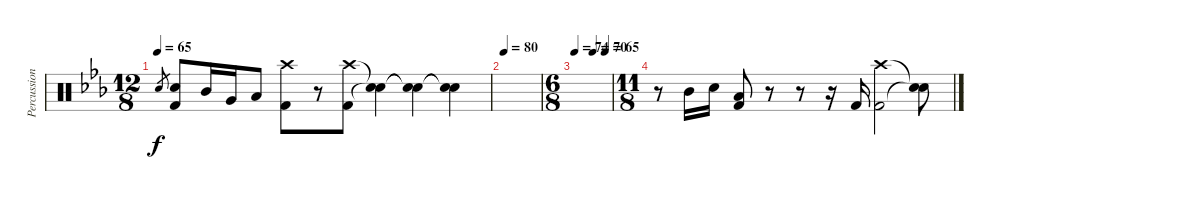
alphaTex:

\track ("Percussion" "Percussion") {instrument percussion}
\staff {score}
\articulation defaults
\ts (12 8)
\tempo 65
\clef neutral
\ks cminor "Snare (hit) 2"{h}.8{gr dy f}
("Snare (hit) 2" "Kick (hit) 2").8 "Mid Tom (hit)".16 "Very Low Tom (hit)".16 "Low Floor Tom (hit)".8 ("Crash high (hit)" "Kick (hit) 2").8 r.8 ("Crash high (hit)" "Kick (hit) 2").8 ("Snare (hit)"{t} "Snare (hit)"{t}).4 ("Snare (hit)"{t} "Snare (hit)"{t}).4 ("Snare (hit)"{t} "Snare (hit)"{t}).4 |
\tempo 80
|
\ts (6 8)
\tempo 74
\tempo (70 0.5)
\tempo (65 0.8333333333333334)
|
\ts (11 8)
r.8 "Mid Tom (hit)".16 "Snare (hit) 2".16 ("Low Floor Tom (hit)" "Kick (hit) 2").8 r.8 r.8 r.16 "Kick (hit) 2".16 ("Crash high (hit)" "Kick (hit) 2").2 ("Snare (hit)"{t} "Snare (hit)"{t}).8
